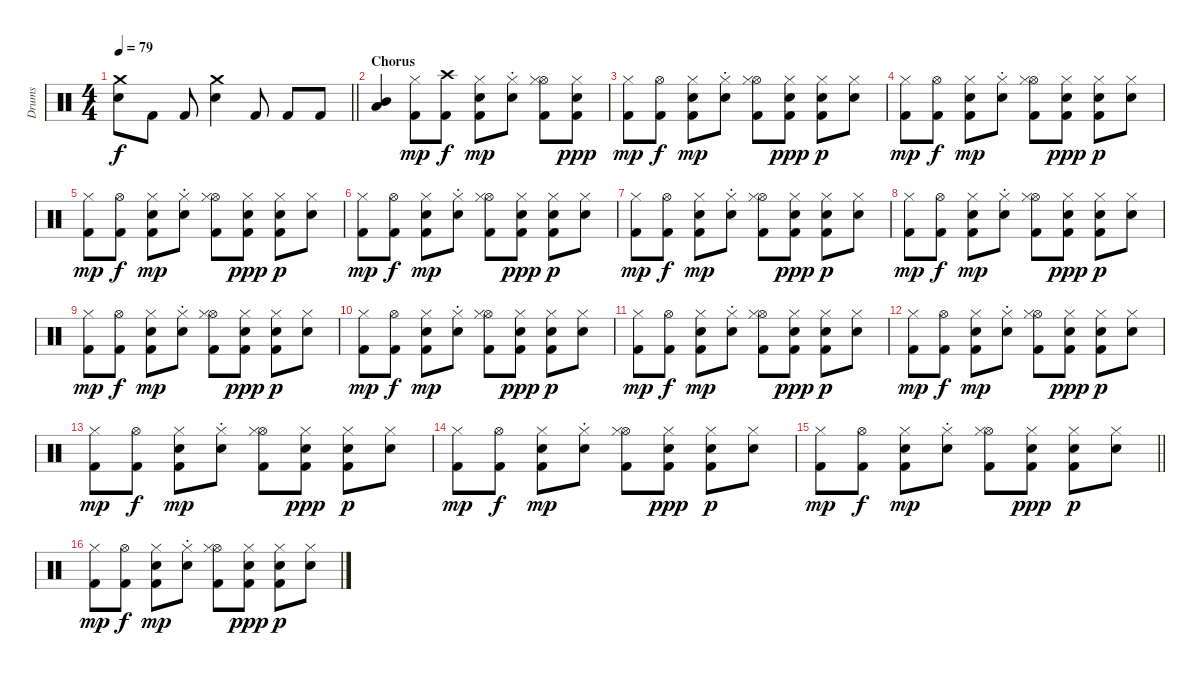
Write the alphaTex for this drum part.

\track ("Drums" "Drums") {instrument percussion}
\staff {score}
\articulation defaults
\ts (4 4)
\tempo 79
\clef neutral
\barLineRight lightlight
\ks c
("Crash medium (hit)" "Electric Snare (hit)").8{dy f} "Kick (hit) 2".8 "Kick (hit) 2".8 ("Crash medium (hit)" "Electric Snare (hit)").4 "Kick (hit) 2".8 "Kick (hit) 2".8 "Kick (hit) 2".8 |
\section ("" "Chorus")
("Mid Tom (hit)" "Low Tom (hit)").4 ("Hi-Hat (closed)" "Kick (hit) 2").8{dy mp} ("Crash high (hit)" "Kick (hit) 2").8{dy f} ("Snare (hit) 2" "Hi-Hat (closed)" "Kick (hit) 2").8{dy mp} ("Snare (hit) 2" "Hi-Hat (closed)"{st}).8 ("Hi-Hat (open)" "Hi-Hat (closed)" "Kick (hit) 2").8 ("Snare (hit) 2" "Hi-Hat (closed)" "Kick (hit) 2").8{dy ppp} |
("Hi-Hat (closed)" "Kick (hit) 2").8{dy mp} ("Hi-Hat (open)" "Kick (hit) 2").8{dy f} ("Snare (hit) 2" "Hi-Hat (closed)" "Kick (hit) 2").8{dy mp} ("Snare (hit) 2" "Hi-Hat (closed)"{st}).8 ("Hi-Hat (open)" "Hi-Hat (closed)" "Kick (hit) 2").8 ("Snare (hit) 2" "Hi-Hat (closed)" "Kick (hit) 2").8{dy ppp} ("Snare (hit) 2" "Hi-Hat (closed)" "Kick (hit) 2").8{dy p} ("Snare (hit) 2" "Hi-Hat (closed)").8 |
("Hi-Hat (closed)" "Kick (hit) 2").8{dy mp} ("Hi-Hat (open)" "Kick (hit) 2").8{dy f} ("Snare (hit) 2" "Hi-Hat (closed)" "Kick (hit) 2").8{dy mp} ("Snare (hit) 2" "Hi-Hat (closed)"{st}).8 ("Hi-Hat (open)" "Hi-Hat (closed)" "Kick (hit) 2").8 ("Snare (hit) 2" "Hi-Hat (closed)" "Kick (hit) 2").8{dy ppp} ("Snare (hit) 2" "Hi-Hat (closed)" "Kick (hit) 2").8{dy p} ("Snare (hit) 2" "Hi-Hat (closed)").8 |
("Hi-Hat (closed)" "Kick (hit) 2").8{dy mp} ("Hi-Hat (open)" "Kick (hit) 2").8{dy f} ("Snare (hit) 2" "Hi-Hat (closed)" "Kick (hit) 2").8{dy mp} ("Snare (hit) 2" "Hi-Hat (closed)"{st}).8 ("Hi-Hat (open)" "Hi-Hat (closed)" "Kick (hit) 2").8 ("Snare (hit) 2" "Hi-Hat (closed)" "Kick (hit) 2").8{dy ppp} ("Snare (hit) 2" "Hi-Hat (closed)" "Kick (hit) 2").8{dy p} ("Snare (hit) 2" "Hi-Hat (closed)").8 |
("Hi-Hat (closed)" "Kick (hit) 2").8{dy mp} ("Hi-Hat (open)" "Kick (hit) 2").8{dy f} ("Snare (hit) 2" "Hi-Hat (closed)" "Kick (hit) 2").8{dy mp} ("Snare (hit) 2" "Hi-Hat (closed)"{st}).8 ("Hi-Hat (open)" "Hi-Hat (closed)" "Kick (hit) 2").8 ("Snare (hit) 2" "Hi-Hat (closed)" "Kick (hit) 2").8{dy ppp} ("Snare (hit) 2" "Hi-Hat (closed)" "Kick (hit) 2").8{dy p} ("Snare (hit) 2" "Hi-Hat (closed)").8 |
("Hi-Hat (closed)" "Kick (hit) 2").8{dy mp} ("Hi-Hat (open)" "Kick (hit) 2").8{dy f} ("Snare (hit) 2" "Hi-Hat (closed)" "Kick (hit) 2").8{dy mp} ("Snare (hit) 2" "Hi-Hat (closed)"{st}).8 ("Hi-Hat (open)" "Hi-Hat (closed)" "Kick (hit) 2").8 ("Snare (hit) 2" "Hi-Hat (closed)" "Kick (hit) 2").8{dy ppp} ("Snare (hit) 2" "Hi-Hat (closed)" "Kick (hit) 2").8{dy p} ("Snare (hit) 2" "Hi-Hat (closed)").8 |
("Hi-Hat (closed)" "Kick (hit) 2").8{dy mp} ("Hi-Hat (open)" "Kick (hit) 2").8{dy f} ("Snare (hit) 2" "Hi-Hat (closed)" "Kick (hit) 2").8{dy mp} ("Snare (hit) 2" "Hi-Hat (closed)"{st}).8 ("Hi-Hat (open)" "Hi-Hat (closed)" "Kick (hit) 2").8 ("Snare (hit) 2" "Hi-Hat (closed)" "Kick (hit) 2").8{dy ppp} ("Snare (hit) 2" "Hi-Hat (closed)" "Kick (hit) 2").8{dy p} ("Snare (hit) 2" "Hi-Hat (closed)").8 |
("Hi-Hat (closed)" "Kick (hit) 2").8{dy mp} ("Hi-Hat (open)" "Kick (hit) 2").8{dy f} ("Snare (hit) 2" "Hi-Hat (closed)" "Kick (hit) 2").8{dy mp} ("Snare (hit) 2" "Hi-Hat (closed)"{st}).8 ("Hi-Hat (open)" "Hi-Hat (closed)" "Kick (hit) 2").8 ("Snare (hit) 2" "Hi-Hat (closed)" "Kick (hit) 2").8{dy ppp} ("Snare (hit) 2" "Hi-Hat (closed)" "Kick (hit) 2").8{dy p} ("Snare (hit) 2" "Hi-Hat (closed)").8 |
("Hi-Hat (closed)" "Kick (hit) 2").8{dy mp} ("Hi-Hat (open)" "Kick (hit) 2").8{dy f} ("Snare (hit) 2" "Hi-Hat (closed)" "Kick (hit) 2").8{dy mp} ("Snare (hit) 2" "Hi-Hat (closed)"{st}).8 ("Hi-Hat (open)" "Hi-Hat (closed)" "Kick (hit) 2").8 ("Snare (hit) 2" "Hi-Hat (closed)" "Kick (hit) 2").8{dy ppp} ("Snare (hit) 2" "Hi-Hat (closed)" "Kick (hit) 2").8{dy p} ("Snare (hit) 2" "Hi-Hat (closed)").8 |
("Hi-Hat (closed)" "Kick (hit) 2").8{dy mp} ("Hi-Hat (open)" "Kick (hit) 2").8{dy f} ("Snare (hit) 2" "Hi-Hat (closed)" "Kick (hit) 2").8{dy mp} ("Snare (hit) 2" "Hi-Hat (closed)"{st}).8 ("Hi-Hat (open)" "Hi-Hat (closed)" "Kick (hit) 2").8 ("Snare (hit) 2" "Hi-Hat (closed)" "Kick (hit) 2").8{dy ppp} ("Snare (hit) 2" "Hi-Hat (closed)" "Kick (hit) 2").8{dy p} ("Snare (hit) 2" "Hi-Hat (closed)").8 |
("Hi-Hat (closed)" "Kick (hit) 2").8{dy mp} ("Hi-Hat (open)" "Kick (hit) 2").8{dy f} ("Snare (hit) 2" "Hi-Hat (closed)" "Kick (hit) 2").8{dy mp} ("Snare (hit) 2" "Hi-Hat (closed)"{st}).8 ("Hi-Hat (open)" "Hi-Hat (closed)" "Kick (hit) 2").8 ("Snare (hit) 2" "Hi-Hat (closed)" "Kick (hit) 2").8{dy ppp} ("Snare (hit) 2" "Hi-Hat (closed)" "Kick (hit) 2").8{dy p} ("Snare (hit) 2" "Hi-Hat (closed)").8 |
("Hi-Hat (closed)" "Kick (hit) 2").8{dy mp} ("Hi-Hat (open)" "Kick (hit) 2").8{dy f} ("Snare (hit) 2" "Hi-Hat (closed)" "Kick (hit) 2").8{dy mp} ("Snare (hit) 2" "Hi-Hat (closed)"{st}).8 ("Hi-Hat (open)" "Hi-Hat (closed)" "Kick (hit) 2").8 ("Snare (hit) 2" "Hi-Hat (closed)" "Kick (hit) 2").8{dy ppp} ("Snare (hit) 2" "Hi-Hat (closed)" "Kick (hit) 2").8{dy p} ("Snare (hit) 2" "Hi-Hat (closed)").8 |
("Hi-Hat (closed)" "Kick (hit) 2").8{dy mp} ("Hi-Hat (open)" "Kick (hit) 2").8{dy f} ("Snare (hit) 2" "Hi-Hat (closed)" "Kick (hit) 2").8{dy mp} ("Snare (hit) 2" "Hi-Hat (closed)"{st}).8 ("Hi-Hat (open)" "Hi-Hat (closed)" "Kick (hit) 2").8 ("Snare (hit) 2" "Hi-Hat (closed)" "Kick (hit) 2").8{dy ppp} ("Snare (hit) 2" "Hi-Hat (closed)" "Kick (hit) 2").8{dy p} ("Snare (hit) 2" "Hi-Hat (closed)").8 |
\barLineRight lightlight
("Hi-Hat (closed)" "Kick (hit) 2").8{dy mp} ("Hi-Hat (open)" "Kick (hit) 2").8{dy f} ("Snare (hit) 2" "Hi-Hat (closed)" "Kick (hit) 2").8{dy mp} ("Snare (hit) 2" "Hi-Hat (closed)"{st}).8 ("Hi-Hat (open)" "Hi-Hat (closed)" "Kick (hit) 2").8 ("Snare (hit) 2" "Hi-Hat (closed)" "Kick (hit) 2").8{dy ppp} ("Snare (hit) 2" "Hi-Hat (closed)" "Kick (hit) 2").8{dy p} ("Snare (hit) 2" "Hi-Hat (closed)").8 |
("Hi-Hat (closed)" "Kick (hit) 2").8{dy mp} ("Hi-Hat (open)" "Kick (hit) 2").8{dy f} ("Snare (hit) 2" "Hi-Hat (closed)" "Kick (hit) 2").8{dy mp} ("Snare (hit) 2" "Hi-Hat (closed)"{st}).8 ("Hi-Hat (open)" "Hi-Hat (closed)" "Kick (hit) 2").8 ("Snare (hit) 2" "Hi-Hat (closed)" "Kick (hit) 2").8{dy ppp} ("Snare (hit) 2" "Hi-Hat (closed)" "Kick (hit) 2").8{dy p} ("Snare (hit) 2" "Hi-Hat (closed)").8
